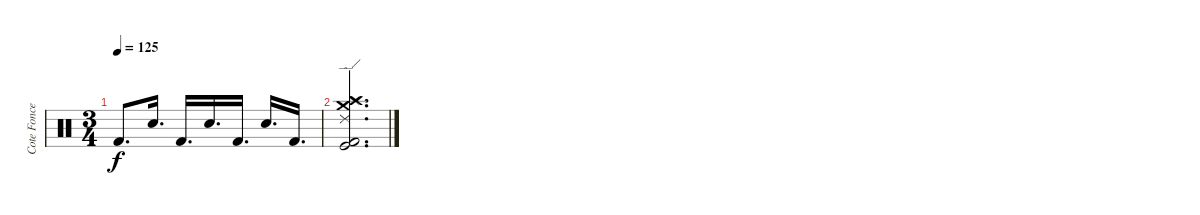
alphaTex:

\track ("Cote Foncea" "Cote Fonce") {instrument percussion}
\staff {score}
\articulation defaults
\ts (3 4)
\tempo 125
\clef neutral
\ks c "Kick (hit) 2".8{d dy f} "Snare (hit) 2".16{d} "Kick (hit) 2".16{d} "Snare (hit) 2".16{d} "Kick (hit) 2".16{d} "Snare (hit) 2".16{d} "Kick (hit) 2".16{d}
|
("Splash (hit)" "Crash high (hit)" "Crash medium (hit)" "Ride (edge) 2" "Kick (hit) 2" "Kick (hit)").2{d}
